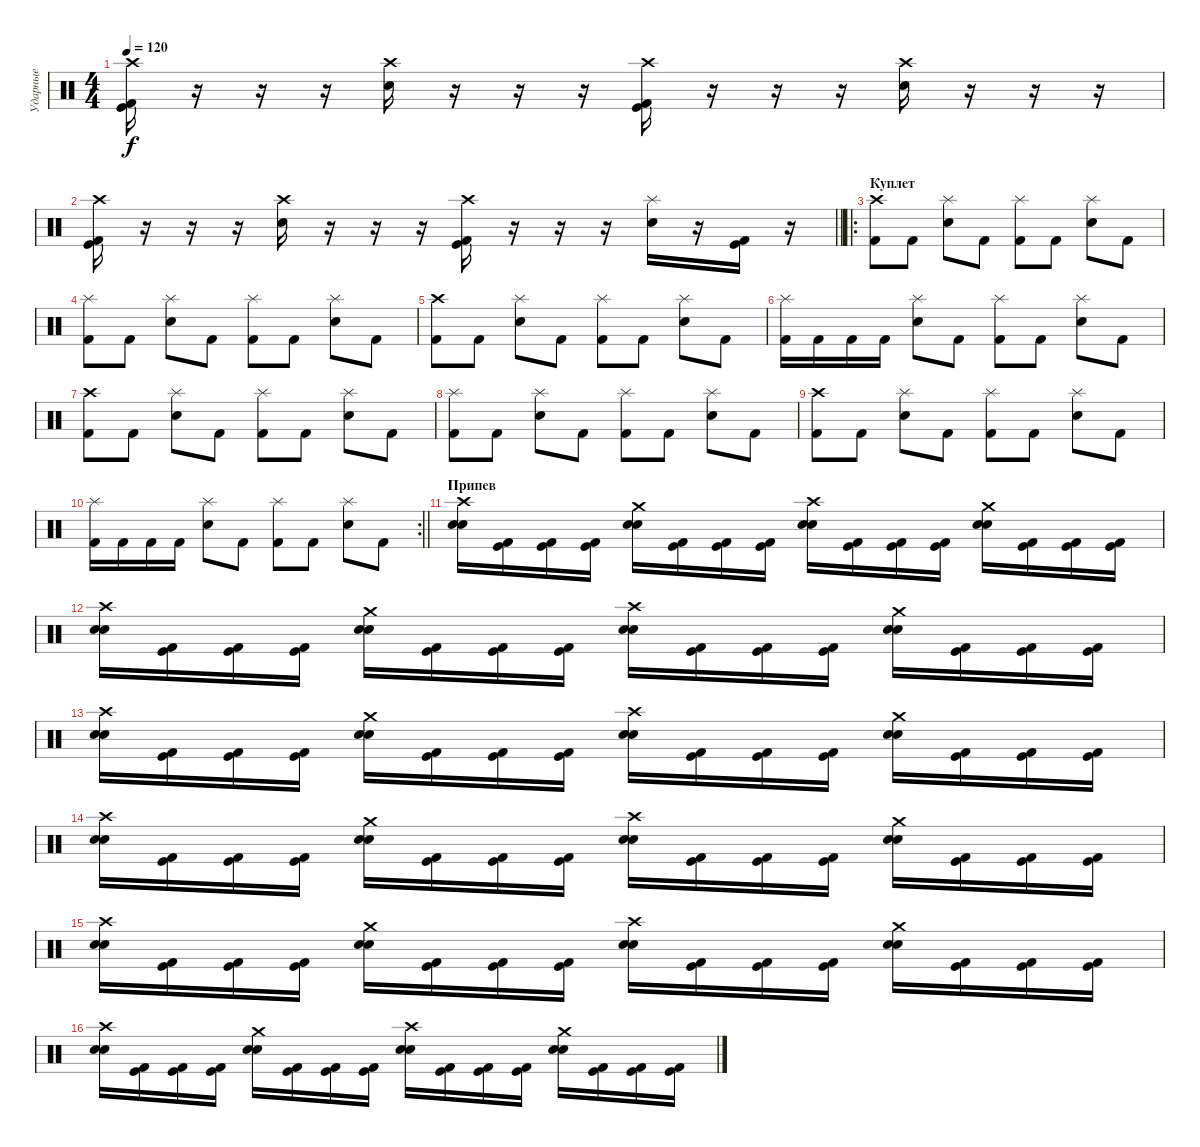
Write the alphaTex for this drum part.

\track ("Ударные" "Ударные") {instrument percussion}
\staff {score}
\articulation defaults
\ts (4 4)
\tempo 120
\clef neutral
\ks c
("Crash high (hit)" "Kick (hit)" "Kick (hit) 2").16{dy f} r.16 r.16 r.16 ("Crash high (hit)" "Electric Snare (hit)").16 r.16 r.16 r.16 ("Crash high (hit)" "Kick (hit)" "Kick (hit) 2").16 r.16 r.16 r.16 ("Crash high (hit)" "Electric Snare (hit)").16 r.16 r.16 r.16 |
\barLineRight lightlight
("Crash high (hit)" "Kick (hit) 2" "Kick (hit)").16 r.16 r.16 r.16 ("Crash high (hit)" "Electric Snare (hit)").16 r.16 r.16 r.16 ("Crash high (hit)" "Kick (hit) 2" "Kick (hit)").16 r.16 r.16 r.16 ("Splash (hit)" "Electric Snare (hit)").16 r.16 ("Kick (hit) 2" "Kick (hit)").16 r.16 |
\ro
\section ("" "Куплет")
("Kick (hit) 2" "Crash high (hit)").8 "Kick (hit) 2".8 ("Electric Snare (hit)" "Splash (hit)").8 "Kick (hit) 2".8 ("Kick (hit) 2" "Splash (hit)").8 "Kick (hit) 2".8 ("Electric Snare (hit)" "Splash (hit)").8 "Kick (hit) 2".8 |
("Kick (hit) 2" "Splash (hit)").8 "Kick (hit) 2".8 ("Electric Snare (hit)" "Splash (hit)").8 "Kick (hit) 2".8 ("Kick (hit) 2" "Splash (hit)").8 "Kick (hit) 2".8 ("Electric Snare (hit)" "Splash (hit)").8 "Kick (hit) 2".8 |
("Kick (hit) 2" "Crash high (hit)").8 "Kick (hit) 2".8 ("Electric Snare (hit)" "Splash (hit)").8 "Kick (hit) 2".8 ("Kick (hit) 2" "Splash (hit)").8 "Kick (hit) 2".8 ("Electric Snare (hit)" "Splash (hit)").8 "Kick (hit) 2".8 |
("Kick (hit) 2" "Splash (hit)").16 "Kick (hit) 2".16 "Kick (hit) 2".16 "Kick (hit) 2".16 ("Electric Snare (hit)" "Splash (hit)").8 "Kick (hit) 2".8 ("Kick (hit) 2" "Splash (hit)").8 "Kick (hit) 2".8 ("Electric Snare (hit)" "Splash (hit)").8 "Kick (hit) 2".8 |
("Kick (hit) 2" "Crash high (hit)").8 "Kick (hit) 2".8 ("Electric Snare (hit)" "Splash (hit)").8 "Kick (hit) 2".8 ("Kick (hit) 2" "Splash (hit)").8 "Kick (hit) 2".8 ("Electric Snare (hit)" "Splash (hit)").8 "Kick (hit) 2".8 |
("Kick (hit) 2" "Splash (hit)").8 "Kick (hit) 2".8 ("Electric Snare (hit)" "Splash (hit)").8 "Kick (hit) 2".8 ("Kick (hit) 2" "Splash (hit)").8 "Kick (hit) 2".8 ("Electric Snare (hit)" "Splash (hit)").8 "Kick (hit) 2".8 |
("Kick (hit) 2" "Crash high (hit)").8 "Kick (hit) 2".8 ("Electric Snare (hit)" "Splash (hit)").8 "Kick (hit) 2".8 ("Kick (hit) 2" "Splash (hit)").8 "Kick (hit) 2".8 ("Electric Snare (hit)" "Splash (hit)").8 "Kick (hit) 2".8 |
\rc 2
\barLineRight lightlight
("Kick (hit) 2" "Splash (hit)").16 "Kick (hit) 2".16 "Kick (hit) 2".16 "Kick (hit) 2".16 ("Electric Snare (hit)" "Splash (hit)").8 "Kick (hit) 2".8 ("Kick (hit) 2" "Splash (hit)").8 "Kick (hit) 2".8 ("Electric Snare (hit)" "Splash (hit)").8 "Kick (hit) 2".8 |
\section ("" "Припев")
("Crash high (hit)" "Snare (hit) 2" "Electric Snare (hit)").16 ("Kick (hit)" "Kick (hit) 2").16 ("Kick (hit)" "Kick (hit) 2").16 ("Kick (hit)" "Kick (hit) 2").16 ("Crash medium (hit)" "Snare (hit) 2" "Electric Snare (hit)").16 ("Kick (hit)" "Kick (hit) 2").16 ("Kick (hit)" "Kick (hit) 2").16 ("Kick (hit)" "Kick (hit) 2").16 ("Crash high (hit)" "Snare (hit) 2" "Electric Snare (hit)").16 ("Kick (hit)" "Kick (hit) 2").16 ("Kick (hit)" "Kick (hit) 2").16 ("Kick (hit)" "Kick (hit) 2").16 ("Crash medium (hit)" "Snare (hit) 2" "Electric Snare (hit)").16 ("Kick (hit)" "Kick (hit) 2").16 ("Kick (hit)" "Kick (hit) 2").16 ("Kick (hit)" "Kick (hit) 2").16 |
("Crash high (hit)" "Snare (hit) 2" "Electric Snare (hit)").16 ("Kick (hit)" "Kick (hit) 2").16 ("Kick (hit)" "Kick (hit) 2").16 ("Kick (hit)" "Kick (hit) 2").16 ("Crash medium (hit)" "Snare (hit) 2" "Electric Snare (hit)").16 ("Kick (hit)" "Kick (hit) 2").16 ("Kick (hit)" "Kick (hit) 2").16 ("Kick (hit)" "Kick (hit) 2").16 ("Crash high (hit)" "Snare (hit) 2" "Electric Snare (hit)").16 ("Kick (hit)" "Kick (hit) 2").16 ("Kick (hit)" "Kick (hit) 2").16 ("Kick (hit)" "Kick (hit) 2").16 ("Crash medium (hit)" "Snare (hit) 2" "Electric Snare (hit)").16 ("Kick (hit)" "Kick (hit) 2").16 ("Kick (hit)" "Kick (hit) 2").16 ("Kick (hit)" "Kick (hit) 2").16 |
("Crash high (hit)" "Snare (hit) 2" "Electric Snare (hit)").16 ("Kick (hit)" "Kick (hit) 2").16 ("Kick (hit)" "Kick (hit) 2").16 ("Kick (hit)" "Kick (hit) 2").16 ("Crash medium (hit)" "Snare (hit) 2" "Electric Snare (hit)").16 ("Kick (hit)" "Kick (hit) 2").16 ("Kick (hit)" "Kick (hit) 2").16 ("Kick (hit)" "Kick (hit) 2").16 ("Crash high (hit)" "Snare (hit) 2" "Electric Snare (hit)").16 ("Kick (hit)" "Kick (hit) 2").16 ("Kick (hit)" "Kick (hit) 2").16 ("Kick (hit)" "Kick (hit) 2").16 ("Crash medium (hit)" "Snare (hit) 2" "Electric Snare (hit)").16 ("Kick (hit)" "Kick (hit) 2").16 ("Kick (hit)" "Kick (hit) 2").16 ("Kick (hit)" "Kick (hit) 2").16 |
("Crash high (hit)" "Snare (hit) 2" "Electric Snare (hit)").16 ("Kick (hit)" "Kick (hit) 2").16 ("Kick (hit)" "Kick (hit) 2").16 ("Kick (hit)" "Kick (hit) 2").16 ("Crash medium (hit)" "Snare (hit) 2" "Electric Snare (hit)").16 ("Kick (hit)" "Kick (hit) 2").16 ("Kick (hit)" "Kick (hit) 2").16 ("Kick (hit)" "Kick (hit) 2").16 ("Crash high (hit)" "Snare (hit) 2" "Electric Snare (hit)").16 ("Kick (hit)" "Kick (hit) 2").16 ("Kick (hit)" "Kick (hit) 2").16 ("Kick (hit)" "Kick (hit) 2").16 ("Crash medium (hit)" "Snare (hit) 2" "Electric Snare (hit)").16 ("Kick (hit)" "Kick (hit) 2").16 ("Kick (hit)" "Kick (hit) 2").16 ("Kick (hit)" "Kick (hit) 2").16 |
("Crash high (hit)" "Snare (hit) 2" "Electric Snare (hit)").16 ("Kick (hit)" "Kick (hit) 2").16 ("Kick (hit)" "Kick (hit) 2").16 ("Kick (hit)" "Kick (hit) 2").16 ("Crash medium (hit)" "Snare (hit) 2" "Electric Snare (hit)").16 ("Kick (hit)" "Kick (hit) 2").16 ("Kick (hit)" "Kick (hit) 2").16 ("Kick (hit)" "Kick (hit) 2").16 ("Crash high (hit)" "Snare (hit) 2" "Electric Snare (hit)").16 ("Kick (hit)" "Kick (hit) 2").16 ("Kick (hit)" "Kick (hit) 2").16 ("Kick (hit)" "Kick (hit) 2").16 ("Crash medium (hit)" "Snare (hit) 2" "Electric Snare (hit)").16 ("Kick (hit)" "Kick (hit) 2").16 ("Kick (hit)" "Kick (hit) 2").16 ("Kick (hit)" "Kick (hit) 2").16 |
("Crash high (hit)" "Snare (hit) 2" "Electric Snare (hit)").16 ("Kick (hit)" "Kick (hit) 2").16 ("Kick (hit)" "Kick (hit) 2").16 ("Kick (hit)" "Kick (hit) 2").16 ("Crash medium (hit)" "Snare (hit) 2" "Electric Snare (hit)").16 ("Kick (hit)" "Kick (hit) 2").16 ("Kick (hit)" "Kick (hit) 2").16 ("Kick (hit)" "Kick (hit) 2").16 ("Crash high (hit)" "Snare (hit) 2" "Electric Snare (hit)").16 ("Kick (hit)" "Kick (hit) 2").16 ("Kick (hit)" "Kick (hit) 2").16 ("Kick (hit)" "Kick (hit) 2").16 ("Crash medium (hit)" "Snare (hit) 2" "Electric Snare (hit)").16 ("Kick (hit)" "Kick (hit) 2").16 ("Kick (hit)" "Kick (hit) 2").16 ("Kick (hit)" "Kick (hit) 2").16
